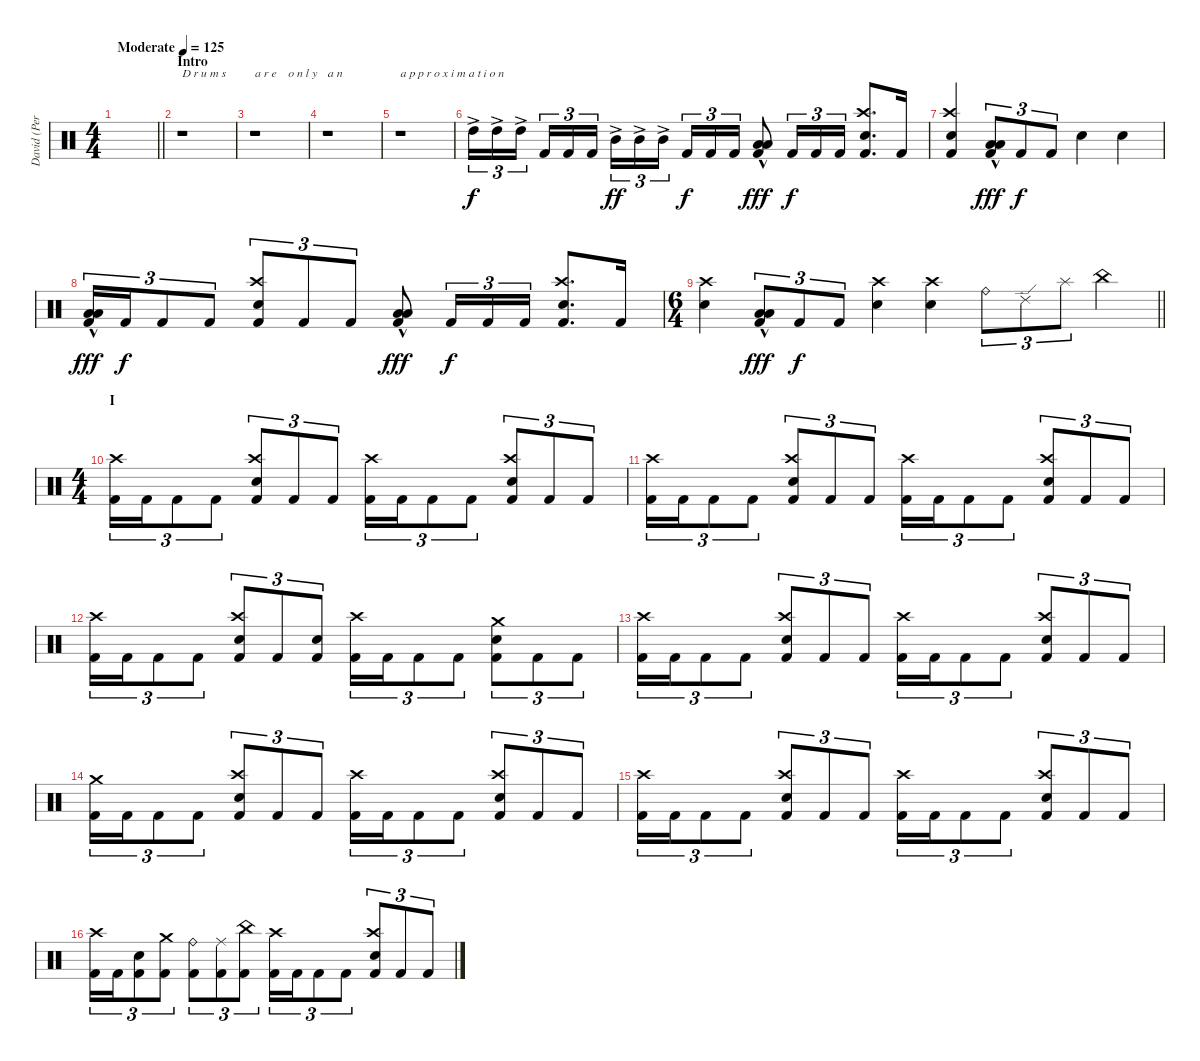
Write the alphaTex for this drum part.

\track ("David (Percussion)" "David (Per") {instrument percussion}
\staff {score}
\articulation defaults
\ts (4 4)
\tempo (125 "Moderate")
\clef neutral
\barLineRight lightlight
\ks c
|
\section ("" "Intro")
r.1{txt "D r u m s   "} |
r.1{txt "a r e    o n l y"} |
r.1{txt "a n "} |
r.1{txt "a p p r o x i m a t i o n "} |
"High Tom (hit)"{ac}.16{tu (3 2)} "High Tom (hit)"{ac}.16{tu (3 2)} "High Tom (hit)"{ac}.16{tu (3 2) beam splitsecondary} "Kick (hit) 2".16{tu (3 2) dy f} "Kick (hit) 2".16{tu (3 2)} "Kick (hit) 2".16{tu (3 2)} "Mid Tom (hit)"{ac}.16{tu (3 2) dy ff} "Mid Tom (hit)"{ac}.16{tu (3 2)} "Mid Tom (hit)"{ac}.16{tu (3 2) beam splitsecondary} "Kick (hit) 2".16{tu (3 2) dy f} "Kick (hit) 2".16{tu (3 2)} "Kick (hit) 2".16{tu (3 2)} ("Low Floor Tom (hit)"{hac} "Low Floor Tom (hit)"{hac} "Kick (hit) 2").8{dy fff} "Kick (hit) 2".16{tu (3 2) dy f} "Kick (hit) 2".16{tu (3 2)} "Kick (hit) 2".16{tu (3 2)} ("Crash high (hit)" "Electric Snare (hit)" "Kick (hit) 2").8{d} "Kick (hit) 2".16 |
("Crash high (hit)" "Electric Snare (hit)" "Kick (hit) 2").4 ("Low Floor Tom (hit)"{hac} "Low Floor Tom (hit)"{hac} "Kick (hit) 2").8{tu (3 2) dy fff} "Kick (hit) 2".8{tu (3 2) dy f} "Kick (hit) 2".8{tu (3 2)} "Electric Snare (hit)".4 "Electric Snare (hit)".4 |
("Low Floor Tom (hit)"{hac} "Low Floor Tom (hit)"{hac} "Kick (hit) 2").16{tu (3 2) dy fff} "Kick (hit) 2".16{tu (3 2) dy f} "Kick (hit) 2".8{tu (3 2)} "Kick (hit) 2".8{tu (3 2)} ("Crash high (hit)" "Electric Snare (hit)" "Kick (hit) 2").8{tu (3 2)} "Kick (hit) 2".8{tu (3 2)} "Kick (hit) 2".8{tu (3 2)} ("Low Floor Tom (hit)"{hac} "Low Floor Tom (hit)"{hac} "Kick (hit) 2").8{dy fff} "Kick (hit) 2".16{tu (3 2) dy f} "Kick (hit) 2".16{tu (3 2)} "Kick (hit) 2".16{tu (3 2)} ("Crash high (hit)" "Electric Snare (hit)" "Kick (hit) 2").8{d} "Kick (hit) 2".16 |
\ts (6 4)
\barLineRight lightlight
("Crash high (hit)" "Electric Snare (hit)").4 ("Low Floor Tom (hit)"{hac} "Low Floor Tom (hit)"{hac} "Kick (hit) 2").8{tu (3 2) dy fff} "Kick (hit) 2".8{tu (3 2) dy f} "Kick (hit) 2".8{tu (3 2)} ("Crash high (hit)" "Electric Snare (hit)").4 ("Crash high (hit)" "Electric Snare (hit)").4 "Ride (bell)".8{tu (3 2)} "Ride (edge) 2".8{tu (3 2)} "Splash (hit)".8{tu (3 2)} "China (hit)".4 |
\ts (4 4)
\section ("" "I")
("Crash high (hit)" "Kick (hit) 2").16{tu (3 2)} "Kick (hit) 2".16{tu (3 2)} "Kick (hit) 2".8{tu (3 2)} "Kick (hit) 2".8{tu (3 2)} ("Crash high (hit)" "Electric Snare (hit)" "Kick (hit) 2").8{tu (3 2)} "Kick (hit) 2".8{tu (3 2)} "Kick (hit) 2".8{tu (3 2)} ("Crash high (hit)" "Kick (hit) 2").16{tu (3 2)} "Kick (hit) 2".16{tu (3 2)} "Kick (hit) 2".8{tu (3 2)} "Kick (hit) 2".8{tu (3 2)} ("Crash high (hit)" "Electric Snare (hit)" "Kick (hit) 2").8{tu (3 2)} "Kick (hit) 2".8{tu (3 2)} "Kick (hit) 2".8{tu (3 2)} |
("Crash high (hit)" "Kick (hit) 2").16{tu (3 2)} "Kick (hit) 2".16{tu (3 2)} "Kick (hit) 2".8{tu (3 2)} "Kick (hit) 2".8{tu (3 2)} ("Crash high (hit)" "Electric Snare (hit)" "Kick (hit) 2").8{tu (3 2)} "Kick (hit) 2".8{tu (3 2)} "Kick (hit) 2".8{tu (3 2)} ("Crash high (hit)" "Kick (hit) 2").16{tu (3 2)} "Kick (hit) 2".16{tu (3 2)} "Kick (hit) 2".8{tu (3 2)} "Kick (hit) 2".8{tu (3 2)} ("Crash high (hit)" "Electric Snare (hit)" "Kick (hit) 2").8{tu (3 2)} "Kick (hit) 2".8{tu (3 2)} "Kick (hit) 2".8{tu (3 2)} |
("Crash high (hit)" "Kick (hit) 2").16{tu (3 2)} "Kick (hit) 2".16{tu (3 2)} "Kick (hit) 2".8{tu (3 2)} "Kick (hit) 2".8{tu (3 2)} ("Crash high (hit)" "Electric Snare (hit)" "Kick (hit) 2").8{tu (3 2)} "Kick (hit) 2".8{tu (3 2)} ("Electric Snare (hit)" "Kick (hit) 2").8{tu (3 2)} ("Crash high (hit)" "Kick (hit) 2").16{tu (3 2)} "Kick (hit) 2".16{tu (3 2)} "Kick (hit) 2".8{tu (3 2)} "Kick (hit) 2".8{tu (3 2)} ("Crash medium (hit)" "Electric Snare (hit)" "Kick (hit) 2").8{tu (3 2)} "Kick (hit) 2".8{tu (3 2)} "Kick (hit) 2".8{tu (3 2)} |
("Crash high (hit)" "Kick (hit) 2").16{tu (3 2)} "Kick (hit) 2".16{tu (3 2)} "Kick (hit) 2".8{tu (3 2)} "Kick (hit) 2".8{tu (3 2)} ("Crash high (hit)" "Electric Snare (hit)" "Kick (hit) 2").8{tu (3 2)} "Kick (hit) 2".8{tu (3 2)} "Kick (hit) 2".8{tu (3 2)} ("Crash high (hit)" "Kick (hit) 2").16{tu (3 2)} "Kick (hit) 2".16{tu (3 2)} "Kick (hit) 2".8{tu (3 2)} "Kick (hit) 2".8{tu (3 2)} ("Crash high (hit)" "Electric Snare (hit)" "Kick (hit) 2").8{tu (3 2)} "Kick (hit) 2".8{tu (3 2)} "Kick (hit) 2".8{tu (3 2)} |
("Crash medium (hit)" "Kick (hit) 2").16{tu (3 2)} "Kick (hit) 2".16{tu (3 2)} "Kick (hit) 2".8{tu (3 2)} "Kick (hit) 2".8{tu (3 2)} ("Crash high (hit)" "Electric Snare (hit)" "Kick (hit) 2").8{tu (3 2)} "Kick (hit) 2".8{tu (3 2)} "Kick (hit) 2".8{tu (3 2)} ("Crash high (hit)" "Kick (hit) 2").16{tu (3 2)} "Kick (hit) 2".16{tu (3 2)} "Kick (hit) 2".8{tu (3 2)} "Kick (hit) 2".8{tu (3 2)} ("Crash high (hit)" "Electric Snare (hit)" "Kick (hit) 2").8{tu (3 2)} "Kick (hit) 2".8{tu (3 2)} "Kick (hit) 2".8{tu (3 2)} |
("Crash high (hit)" "Kick (hit) 2").16{tu (3 2)} "Kick (hit) 2".16{tu (3 2)} "Kick (hit) 2".8{tu (3 2)} "Kick (hit) 2".8{tu (3 2)} ("Crash high (hit)" "Electric Snare (hit)" "Kick (hit) 2").8{tu (3 2)} "Kick (hit) 2".8{tu (3 2)} "Kick (hit) 2".8{tu (3 2)} ("Crash high (hit)" "Kick (hit) 2").16{tu (3 2)} "Kick (hit) 2".16{tu (3 2)} "Kick (hit) 2".8{tu (3 2)} "Kick (hit) 2".8{tu (3 2)} ("Crash high (hit)" "Electric Snare (hit)" "Kick (hit) 2").8{tu (3 2)} "Kick (hit) 2".8{tu (3 2)} "Kick (hit) 2".8{tu (3 2)} |
("Crash high (hit)" "Kick (hit) 2").16{tu (3 2)} "Kick (hit) 2".16{tu (3 2)} ("Electric Snare (hit)" "Kick (hit) 2").8{tu (3 2)} ("Crash medium (hit)" "Kick (hit) 2").8{tu (3 2)} ("Ride (bell)" "Kick (hit) 2").8{tu (3 2)} ("Ride (middle)" "Kick (hit) 2").8{tu (3 2)} ("China (hit)" "Kick (hit) 2").8{tu (3 2)} ("Crash high (hit)" "Kick (hit) 2").16{tu (3 2)} "Kick (hit) 2".16{tu (3 2)} "Kick (hit) 2".8{tu (3 2)} "Kick (hit) 2".8{tu (3 2)} ("Crash high (hit)" "Electric Snare (hit)" "Kick (hit) 2").8{tu (3 2)} "Kick (hit) 2".8{tu (3 2)} "Kick (hit) 2".8{tu (3 2)}
